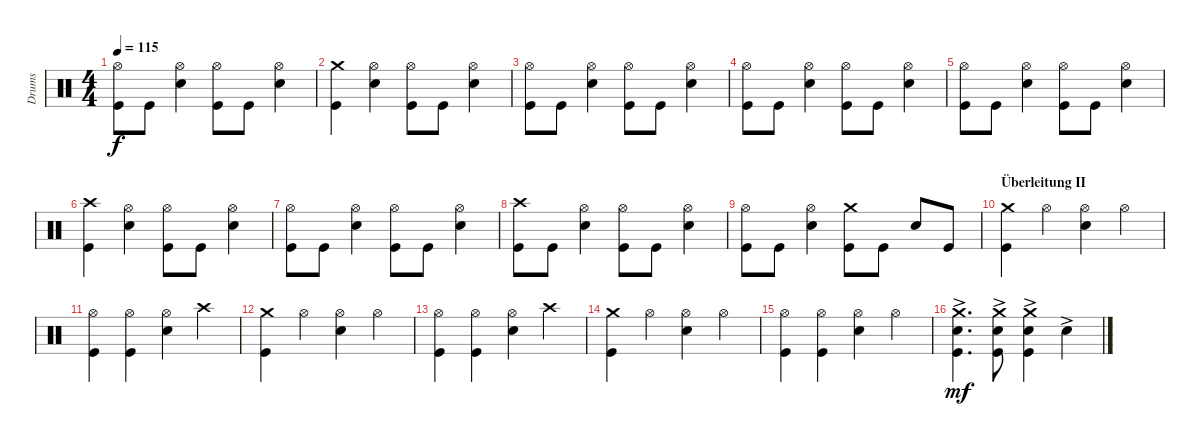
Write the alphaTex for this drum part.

\track ("Drums" "Drums") {instrument percussion}
\staff {score}
\articulation defaults
\ts (4 4)
\tempo 115
\clef neutral
\ks c
("Hi-Hat (open)" "Kick (hit)").8{dy f} "Kick (hit)".8 ("Hi-Hat (open)" "Snare (hit) 2").4 ("Hi-Hat (open)" "Kick (hit)").8 "Kick (hit)".8 ("Hi-Hat (open)" "Snare (hit) 2").4 |
("Kick (hit)" "Crash medium (hit)").4 ("Hi-Hat (open)" "Snare (hit) 2").4 ("Hi-Hat (open)" "Kick (hit)").8 "Kick (hit)".8 ("Hi-Hat (open)" "Snare (hit) 2").4 |
("Hi-Hat (open)" "Kick (hit)").8 "Kick (hit)".8 ("Hi-Hat (open)" "Snare (hit) 2").4 ("Hi-Hat (open)" "Kick (hit)").8 "Kick (hit)".8 ("Hi-Hat (open)" "Snare (hit) 2").4 |
("Hi-Hat (open)" "Kick (hit)").8 "Kick (hit)".8 ("Hi-Hat (open)" "Snare (hit) 2").4 ("Hi-Hat (open)" "Kick (hit)").8 "Kick (hit)".8 ("Hi-Hat (open)" "Snare (hit) 2").4 |
("Hi-Hat (open)" "Kick (hit)").8 "Kick (hit)".8 ("Hi-Hat (open)" "Snare (hit) 2").4 ("Hi-Hat (open)" "Kick (hit)").8 "Kick (hit)".8 ("Hi-Hat (open)" "Snare (hit) 2").4 |
("Crash high (hit)" "Kick (hit)").4 ("Hi-Hat (open)" "Snare (hit) 2").4 ("Hi-Hat (open)" "Kick (hit)").8 "Kick (hit)".8 ("Hi-Hat (open)" "Snare (hit) 2").4 |
("Hi-Hat (open)" "Kick (hit)").8 "Kick (hit)".8 ("Hi-Hat (open)" "Snare (hit) 2").4 ("Hi-Hat (open)" "Kick (hit)").8 "Kick (hit)".8 ("Hi-Hat (open)" "Snare (hit) 2").4 |
("Kick (hit)" "Crash high (hit)").8 "Kick (hit)".8 ("Hi-Hat (open)" "Snare (hit) 2").4 ("Hi-Hat (open)" "Kick (hit)").8 "Kick (hit)".8 ("Hi-Hat (open)" "Snare (hit) 2").4 |
("Hi-Hat (open)" "Kick (hit)").8 "Kick (hit)".8 ("Hi-Hat (open)" "Snare (hit) 2").4 ("Crash medium (hit)" "Kick (hit)").8 "Kick (hit)".8 "Snare (hit) 2".8 "Kick (hit)".8 |
\section ("" "Überleitung II")
("Crash medium (hit)" "Kick (hit)").4 "Hi-Hat (open)".4 ("Hi-Hat (open)" "Snare (hit) 2").4 "Hi-Hat (open)".4 |
("Hi-Hat (open)" "Kick (hit)").4 ("Hi-Hat (open)" "Kick (hit)").4 ("Hi-Hat (open)" "Snare (hit) 2").4 "Crash high (hit)".4 |
("Crash medium (hit)" "Kick (hit)").4 "Hi-Hat (open)".4 ("Hi-Hat (open)" "Snare (hit) 2").4 "Hi-Hat (open)".4 |
("Hi-Hat (open)" "Kick (hit)").4 ("Hi-Hat (open)" "Kick (hit)").4 ("Hi-Hat (open)" "Snare (hit) 2").4 "Crash high (hit)".4 |
("Crash medium (hit)" "Kick (hit)").4 "Hi-Hat (open)".4 ("Hi-Hat (open)" "Snare (hit) 2").4 "Hi-Hat (open)".4 |
("Hi-Hat (open)" "Kick (hit)").4 ("Hi-Hat (open)" "Kick (hit)").4 ("Hi-Hat (open)" "Snare (hit) 2").4 "Hi-Hat (open)".4 |
("Crash medium (hit)"{ac} "Kick (hit)"{ac} "Snare (hit) 2"{ac}).4{d dy mf} ("Crash medium (hit)"{ac} "Kick (hit)"{ac} "Snare (hit) 2"{ac}).8 ("Crash medium (hit)"{ac} "Kick (hit)"{ac} "Snare (hit) 2"{ac}).4 "Snare (hit) 2"{ac}.4
